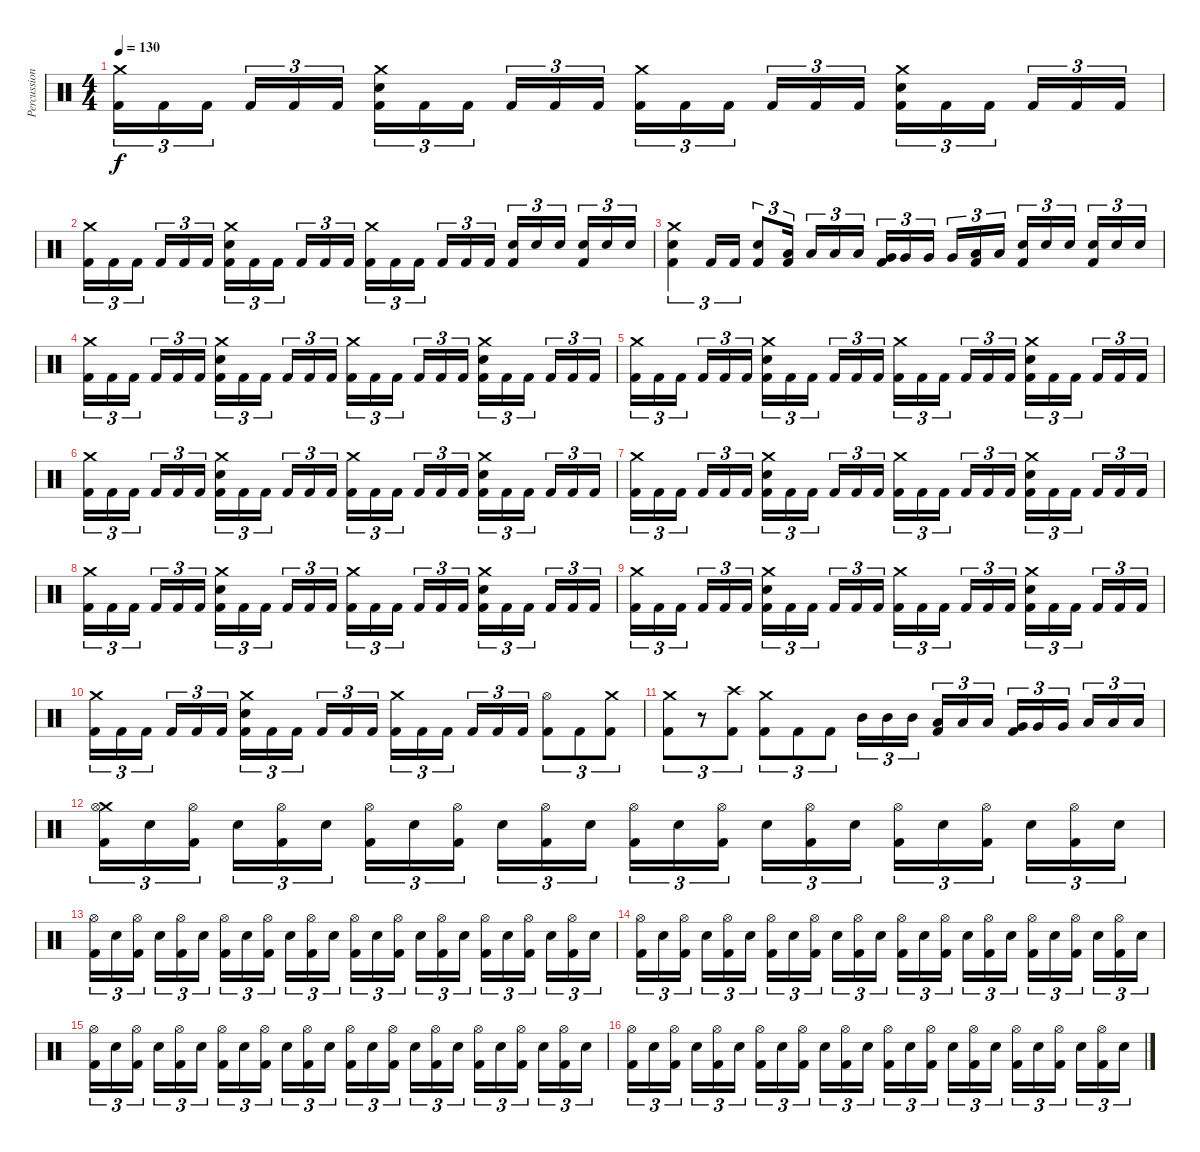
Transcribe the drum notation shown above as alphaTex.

\track ("Percussion" "Percussion") {instrument percussion}
\staff {score}
\articulation defaults
\ts (4 4)
\tempo 130
\clef neutral
\ks c
("Crash medium (hit)" "Kick (hit) 2").16{tu (3 2) dy f} "Kick (hit) 2".16{tu (3 2)} "Kick (hit) 2".16{tu (3 2)} "Kick (hit) 2".16{tu (3 2)} "Kick (hit) 2".16{tu (3 2)} "Kick (hit) 2".16{tu (3 2)} ("Crash medium (hit)" "Snare (hit) 2" "Kick (hit) 2").16{tu (3 2)} "Kick (hit) 2".16{tu (3 2)} "Kick (hit) 2".16{tu (3 2)} "Kick (hit) 2".16{tu (3 2)} "Kick (hit) 2".16{tu (3 2)} "Kick (hit) 2".16{tu (3 2)} ("Crash medium (hit)" "Kick (hit) 2").16{tu (3 2)} "Kick (hit) 2".16{tu (3 2)} "Kick (hit) 2".16{tu (3 2)} "Kick (hit) 2".16{tu (3 2)} "Kick (hit) 2".16{tu (3 2)} "Kick (hit) 2".16{tu (3 2)} ("Crash medium (hit)" "Snare (hit) 2" "Kick (hit) 2").16{tu (3 2)} "Kick (hit) 2".16{tu (3 2)} "Kick (hit) 2".16{tu (3 2)} "Kick (hit) 2".16{tu (3 2)} "Kick (hit) 2".16{tu (3 2)} "Kick (hit) 2".16{tu (3 2)} |
("Crash medium (hit)" "Kick (hit) 2").16{tu (3 2)} "Kick (hit) 2".16{tu (3 2)} "Kick (hit) 2".16{tu (3 2)} "Kick (hit) 2".16{tu (3 2)} "Kick (hit) 2".16{tu (3 2)} "Kick (hit) 2".16{tu (3 2)} ("Crash medium (hit)" "Snare (hit) 2" "Kick (hit) 2").16{tu (3 2)} "Kick (hit) 2".16{tu (3 2)} "Kick (hit) 2".16{tu (3 2)} "Kick (hit) 2".16{tu (3 2)} "Kick (hit) 2".16{tu (3 2)} "Kick (hit) 2".16{tu (3 2)} ("Crash medium (hit)" "Kick (hit) 2").16{tu (3 2)} "Kick (hit) 2".16{tu (3 2)} "Kick (hit) 2".16{tu (3 2)} "Kick (hit) 2".16{tu (3 2)} "Kick (hit) 2".16{tu (3 2)} "Kick (hit) 2".16{tu (3 2)} ("Snare (hit) 2" "Kick (hit) 2").16{tu (3 2)} "Snare (hit) 2".16{tu (3 2)} "Snare (hit) 2".16{tu (3 2)} ("Snare (hit) 2" "Kick (hit) 2").16{tu (3 2)} "Snare (hit) 2".16{tu (3 2)} "Snare (hit) 2".16{tu (3 2)} |
("Crash medium (hit)" "Snare (hit) 2" "Kick (hit) 2").4{tu (3 2)} "Kick (hit) 2".16{tu (3 2)} "Kick (hit) 2".16{tu (3 2)} ("Snare (hit) 2" "Kick (hit) 2").8{tu (3 2)} ("Low Tom (hit)" "Kick (hit) 2").16{tu (3 2)} "Low Tom (hit)".16{tu (3 2)} "Low Tom (hit)".16{tu (3 2)} "Low Tom (hit)".16{tu (3 2)} ("Very Low Tom (hit)" "Kick (hit) 2").16{tu (3 2)} "Very Low Tom (hit)".16{tu (3 2)} "Very Low Tom (hit)".16{tu (3 2)} "Very Low Tom (hit)".16{tu (3 2)} ("Low Floor Tom (hit)" "Kick (hit) 2").16{tu (3 2)} "Low Floor Tom (hit)".16{tu (3 2)} ("Snare (hit) 2" "Kick (hit) 2").16{tu (3 2)} "Snare (hit) 2".16{tu (3 2)} "Snare (hit) 2".16{tu (3 2)} ("Snare (hit) 2" "Kick (hit) 2").16{tu (3 2)} "Snare (hit) 2".16{tu (3 2)} "Snare (hit) 2".16{tu (3 2)} |
("Crash medium (hit)" "Kick (hit) 2").16{tu (3 2)} "Kick (hit) 2".16{tu (3 2)} "Kick (hit) 2".16{tu (3 2)} "Kick (hit) 2".16{tu (3 2)} "Kick (hit) 2".16{tu (3 2)} "Kick (hit) 2".16{tu (3 2)} ("Crash medium (hit)" "Snare (hit) 2" "Kick (hit) 2").16{tu (3 2)} "Kick (hit) 2".16{tu (3 2)} "Kick (hit) 2".16{tu (3 2)} "Kick (hit) 2".16{tu (3 2)} "Kick (hit) 2".16{tu (3 2)} "Kick (hit) 2".16{tu (3 2)} ("Crash medium (hit)" "Kick (hit) 2").16{tu (3 2)} "Kick (hit) 2".16{tu (3 2)} "Kick (hit) 2".16{tu (3 2)} "Kick (hit) 2".16{tu (3 2)} "Kick (hit) 2".16{tu (3 2)} "Kick (hit) 2".16{tu (3 2)} ("Crash medium (hit)" "Snare (hit) 2" "Kick (hit) 2").16{tu (3 2)} "Kick (hit) 2".16{tu (3 2)} "Kick (hit) 2".16{tu (3 2)} "Kick (hit) 2".16{tu (3 2)} "Kick (hit) 2".16{tu (3 2)} "Kick (hit) 2".16{tu (3 2)} |
("Crash medium (hit)" "Kick (hit) 2").16{tu (3 2)} "Kick (hit) 2".16{tu (3 2)} "Kick (hit) 2".16{tu (3 2)} "Kick (hit) 2".16{tu (3 2)} "Kick (hit) 2".16{tu (3 2)} "Kick (hit) 2".16{tu (3 2)} ("Crash medium (hit)" "Snare (hit) 2" "Kick (hit) 2").16{tu (3 2)} "Kick (hit) 2".16{tu (3 2)} "Kick (hit) 2".16{tu (3 2)} "Kick (hit) 2".16{tu (3 2)} "Kick (hit) 2".16{tu (3 2)} "Kick (hit) 2".16{tu (3 2)} ("Crash medium (hit)" "Kick (hit) 2").16{tu (3 2)} "Kick (hit) 2".16{tu (3 2)} "Kick (hit) 2".16{tu (3 2)} "Kick (hit) 2".16{tu (3 2)} "Kick (hit) 2".16{tu (3 2)} "Kick (hit) 2".16{tu (3 2)} ("Crash medium (hit)" "Snare (hit) 2" "Kick (hit) 2").16{tu (3 2)} "Kick (hit) 2".16{tu (3 2)} "Kick (hit) 2".16{tu (3 2)} "Kick (hit) 2".16{tu (3 2)} "Kick (hit) 2".16{tu (3 2)} "Kick (hit) 2".16{tu (3 2)} |
("Crash medium (hit)" "Kick (hit) 2").16{tu (3 2)} "Kick (hit) 2".16{tu (3 2)} "Kick (hit) 2".16{tu (3 2)} "Kick (hit) 2".16{tu (3 2)} "Kick (hit) 2".16{tu (3 2)} "Kick (hit) 2".16{tu (3 2)} ("Crash medium (hit)" "Snare (hit) 2" "Kick (hit) 2").16{tu (3 2)} "Kick (hit) 2".16{tu (3 2)} "Kick (hit) 2".16{tu (3 2)} "Kick (hit) 2".16{tu (3 2)} "Kick (hit) 2".16{tu (3 2)} "Kick (hit) 2".16{tu (3 2)} ("Crash medium (hit)" "Kick (hit) 2").16{tu (3 2)} "Kick (hit) 2".16{tu (3 2)} "Kick (hit) 2".16{tu (3 2)} "Kick (hit) 2".16{tu (3 2)} "Kick (hit) 2".16{tu (3 2)} "Kick (hit) 2".16{tu (3 2)} ("Crash medium (hit)" "Snare (hit) 2" "Kick (hit) 2").16{tu (3 2)} "Kick (hit) 2".16{tu (3 2)} "Kick (hit) 2".16{tu (3 2)} "Kick (hit) 2".16{tu (3 2)} "Kick (hit) 2".16{tu (3 2)} "Kick (hit) 2".16{tu (3 2)} |
("Crash medium (hit)" "Kick (hit) 2").16{tu (3 2)} "Kick (hit) 2".16{tu (3 2)} "Kick (hit) 2".16{tu (3 2)} "Kick (hit) 2".16{tu (3 2)} "Kick (hit) 2".16{tu (3 2)} "Kick (hit) 2".16{tu (3 2)} ("Crash medium (hit)" "Snare (hit) 2" "Kick (hit) 2").16{tu (3 2)} "Kick (hit) 2".16{tu (3 2)} "Kick (hit) 2".16{tu (3 2)} "Kick (hit) 2".16{tu (3 2)} "Kick (hit) 2".16{tu (3 2)} "Kick (hit) 2".16{tu (3 2)} ("Crash medium (hit)" "Kick (hit) 2").16{tu (3 2)} "Kick (hit) 2".16{tu (3 2)} "Kick (hit) 2".16{tu (3 2)} "Kick (hit) 2".16{tu (3 2)} "Kick (hit) 2".16{tu (3 2)} "Kick (hit) 2".16{tu (3 2)} ("Crash medium (hit)" "Snare (hit) 2" "Kick (hit) 2").16{tu (3 2)} "Kick (hit) 2".16{tu (3 2)} "Kick (hit) 2".16{tu (3 2)} "Kick (hit) 2".16{tu (3 2)} "Kick (hit) 2".16{tu (3 2)} "Kick (hit) 2".16{tu (3 2)} |
("Crash medium (hit)" "Kick (hit) 2").16{tu (3 2)} "Kick (hit) 2".16{tu (3 2)} "Kick (hit) 2".16{tu (3 2)} "Kick (hit) 2".16{tu (3 2)} "Kick (hit) 2".16{tu (3 2)} "Kick (hit) 2".16{tu (3 2)} ("Crash medium (hit)" "Snare (hit) 2" "Kick (hit) 2").16{tu (3 2)} "Kick (hit) 2".16{tu (3 2)} "Kick (hit) 2".16{tu (3 2)} "Kick (hit) 2".16{tu (3 2)} "Kick (hit) 2".16{tu (3 2)} "Kick (hit) 2".16{tu (3 2)} ("Crash medium (hit)" "Kick (hit) 2").16{tu (3 2)} "Kick (hit) 2".16{tu (3 2)} "Kick (hit) 2".16{tu (3 2)} "Kick (hit) 2".16{tu (3 2)} "Kick (hit) 2".16{tu (3 2)} "Kick (hit) 2".16{tu (3 2)} ("Crash medium (hit)" "Snare (hit) 2" "Kick (hit) 2").16{tu (3 2)} "Kick (hit) 2".16{tu (3 2)} "Kick (hit) 2".16{tu (3 2)} "Kick (hit) 2".16{tu (3 2)} "Kick (hit) 2".16{tu (3 2)} "Kick (hit) 2".16{tu (3 2)} |
("Crash medium (hit)" "Kick (hit) 2").16{tu (3 2)} "Kick (hit) 2".16{tu (3 2)} "Kick (hit) 2".16{tu (3 2)} "Kick (hit) 2".16{tu (3 2)} "Kick (hit) 2".16{tu (3 2)} "Kick (hit) 2".16{tu (3 2)} ("Crash medium (hit)" "Snare (hit) 2" "Kick (hit) 2").16{tu (3 2)} "Kick (hit) 2".16{tu (3 2)} "Kick (hit) 2".16{tu (3 2)} "Kick (hit) 2".16{tu (3 2)} "Kick (hit) 2".16{tu (3 2)} "Kick (hit) 2".16{tu (3 2)} ("Crash medium (hit)" "Kick (hit) 2").16{tu (3 2)} "Kick (hit) 2".16{tu (3 2)} "Kick (hit) 2".16{tu (3 2)} "Kick (hit) 2".16{tu (3 2)} "Kick (hit) 2".16{tu (3 2)} "Kick (hit) 2".16{tu (3 2)} ("Crash medium (hit)" "Snare (hit) 2" "Kick (hit) 2").16{tu (3 2)} "Kick (hit) 2".16{tu (3 2)} "Kick (hit) 2".16{tu (3 2)} "Kick (hit) 2".16{tu (3 2)} "Kick (hit) 2".16{tu (3 2)} "Kick (hit) 2".16{tu (3 2)} |
("Crash medium (hit)" "Kick (hit) 2").16{tu (3 2)} "Kick (hit) 2".16{tu (3 2)} "Kick (hit) 2".16{tu (3 2)} "Kick (hit) 2".16{tu (3 2)} "Kick (hit) 2".16{tu (3 2)} "Kick (hit) 2".16{tu (3 2)} ("Crash medium (hit)" "Snare (hit) 2" "Kick (hit) 2").16{tu (3 2)} "Kick (hit) 2".16{tu (3 2)} "Kick (hit) 2".16{tu (3 2)} "Kick (hit) 2".16{tu (3 2)} "Kick (hit) 2".16{tu (3 2)} "Kick (hit) 2".16{tu (3 2)} ("Crash medium (hit)" "Kick (hit) 2").16{tu (3 2)} "Kick (hit) 2".16{tu (3 2)} "Kick (hit) 2".16{tu (3 2)} "Kick (hit) 2".16{tu (3 2)} "Kick (hit) 2".16{tu (3 2)} "Kick (hit) 2".16{tu (3 2)} ("Hi-Hat (open)" "Kick (hit) 2").8{tu (3 2)} "Kick (hit) 2".8{tu (3 2)} ("Crash medium (hit)" "Kick (hit) 2").8{tu (3 2)} |
("Crash medium (hit)" "Kick (hit) 2").8{tu (3 2)} r.8{tu (3 2)} ("Crash high (hit)" "Kick (hit) 2").8{tu (3 2)} ("Crash medium (hit)" "Kick (hit) 2").8{tu (3 2)} "Kick (hit) 2".8{tu (3 2)} "Kick (hit) 2".8{tu (3 2)} "Mid Tom (hit)".16{tu (3 2)} "Mid Tom (hit)".16{tu (3 2)} "Mid Tom (hit)".16{tu (3 2)} ("Low Tom (hit)" "Kick (hit) 2").16{tu (3 2)} "Low Tom (hit)".16{tu (3 2)} "Low Tom (hit)".16{tu (3 2)} ("Very Low Tom (hit)" "Kick (hit) 2").16{tu (3 2)} "Very Low Tom (hit)".16{tu (3 2)} "Very Low Tom (hit)".16{tu (3 2)} "Low Floor Tom (hit)".16{tu (3 2)} "Low Floor Tom (hit)".16{tu (3 2)} "Low Floor Tom (hit)".16{tu (3 2)} |
("Crash medium (hit)" "Hi-Hat (open)" "Kick (hit) 2").16{tu (3 2)} "Snare (hit) 2".16{tu (3 2)} ("Hi-Hat (open)" "Kick (hit) 2").16{tu (3 2)} "Snare (hit) 2".16{tu (3 2)} ("Hi-Hat (open)" "Kick (hit) 2").16{tu (3 2)} "Snare (hit) 2".16{tu (3 2)} ("Hi-Hat (open)" "Kick (hit) 2").16{tu (3 2)} "Snare (hit) 2".16{tu (3 2)} ("Hi-Hat (open)" "Kick (hit) 2").16{tu (3 2)} "Snare (hit) 2".16{tu (3 2)} ("Hi-Hat (open)" "Kick (hit) 2").16{tu (3 2)} "Snare (hit) 2".16{tu (3 2)} ("Hi-Hat (open)" "Kick (hit) 2").16{tu (3 2)} "Snare (hit) 2".16{tu (3 2)} ("Hi-Hat (open)" "Kick (hit) 2").16{tu (3 2)} "Snare (hit) 2".16{tu (3 2)} ("Hi-Hat (open)" "Kick (hit) 2").16{tu (3 2)} "Snare (hit) 2".16{tu (3 2)} ("Hi-Hat (open)" "Kick (hit) 2").16{tu (3 2)} "Snare (hit) 2".16{tu (3 2)} ("Hi-Hat (open)" "Kick (hit) 2").16{tu (3 2)} "Snare (hit) 2".16{tu (3 2)} ("Hi-Hat (open)" "Kick (hit) 2").16{tu (3 2)} "Snare (hit) 2".16{tu (3 2)} |
("Hi-Hat (open)" "Kick (hit) 2").16{tu (3 2)} "Snare (hit) 2".16{tu (3 2)} ("Hi-Hat (open)" "Kick (hit) 2").16{tu (3 2)} "Snare (hit) 2".16{tu (3 2)} ("Hi-Hat (open)" "Kick (hit) 2").16{tu (3 2)} "Snare (hit) 2".16{tu (3 2)} ("Hi-Hat (open)" "Kick (hit) 2").16{tu (3 2)} "Snare (hit) 2".16{tu (3 2)} ("Hi-Hat (open)" "Kick (hit) 2").16{tu (3 2)} "Snare (hit) 2".16{tu (3 2)} ("Hi-Hat (open)" "Kick (hit) 2").16{tu (3 2)} "Snare (hit) 2".16{tu (3 2)} ("Hi-Hat (open)" "Kick (hit) 2").16{tu (3 2)} "Snare (hit) 2".16{tu (3 2)} ("Hi-Hat (open)" "Kick (hit) 2").16{tu (3 2)} "Snare (hit) 2".16{tu (3 2)} ("Hi-Hat (open)" "Kick (hit) 2").16{tu (3 2)} "Snare (hit) 2".16{tu (3 2)} ("Hi-Hat (open)" "Kick (hit) 2").16{tu (3 2)} "Snare (hit) 2".16{tu (3 2)} ("Hi-Hat (open)" "Kick (hit) 2").16{tu (3 2)} "Snare (hit) 2".16{tu (3 2)} ("Hi-Hat (open)" "Kick (hit) 2").16{tu (3 2)} "Snare (hit) 2".16{tu (3 2)} |
("Hi-Hat (open)" "Kick (hit) 2").16{tu (3 2)} "Snare (hit) 2".16{tu (3 2)} ("Hi-Hat (open)" "Kick (hit) 2").16{tu (3 2)} "Snare (hit) 2".16{tu (3 2)} ("Hi-Hat (open)" "Kick (hit) 2").16{tu (3 2)} "Snare (hit) 2".16{tu (3 2)} ("Hi-Hat (open)" "Kick (hit) 2").16{tu (3 2)} "Snare (hit) 2".16{tu (3 2)} ("Hi-Hat (open)" "Kick (hit) 2").16{tu (3 2)} "Snare (hit) 2".16{tu (3 2)} ("Hi-Hat (open)" "Kick (hit) 2").16{tu (3 2)} "Snare (hit) 2".16{tu (3 2)} ("Hi-Hat (open)" "Kick (hit) 2").16{tu (3 2)} "Snare (hit) 2".16{tu (3 2)} ("Hi-Hat (open)" "Kick (hit) 2").16{tu (3 2)} "Snare (hit) 2".16{tu (3 2)} ("Hi-Hat (open)" "Kick (hit) 2").16{tu (3 2)} "Snare (hit) 2".16{tu (3 2)} ("Hi-Hat (open)" "Kick (hit) 2").16{tu (3 2)} "Snare (hit) 2".16{tu (3 2)} ("Hi-Hat (open)" "Kick (hit) 2").16{tu (3 2)} "Snare (hit) 2".16{tu (3 2)} ("Hi-Hat (open)" "Kick (hit) 2").16{tu (3 2)} "Snare (hit) 2".16{tu (3 2)} |
("Hi-Hat (open)" "Kick (hit) 2").16{tu (3 2)} "Snare (hit) 2".16{tu (3 2)} ("Hi-Hat (open)" "Kick (hit) 2").16{tu (3 2)} "Snare (hit) 2".16{tu (3 2)} ("Hi-Hat (open)" "Kick (hit) 2").16{tu (3 2)} "Snare (hit) 2".16{tu (3 2)} ("Hi-Hat (open)" "Kick (hit) 2").16{tu (3 2)} "Snare (hit) 2".16{tu (3 2)} ("Hi-Hat (open)" "Kick (hit) 2").16{tu (3 2)} "Snare (hit) 2".16{tu (3 2)} ("Hi-Hat (open)" "Kick (hit) 2").16{tu (3 2)} "Snare (hit) 2".16{tu (3 2)} ("Hi-Hat (open)" "Kick (hit) 2").16{tu (3 2)} "Snare (hit) 2".16{tu (3 2)} ("Hi-Hat (open)" "Kick (hit) 2").16{tu (3 2)} "Snare (hit) 2".16{tu (3 2)} ("Hi-Hat (open)" "Kick (hit) 2").16{tu (3 2)} "Snare (hit) 2".16{tu (3 2)} ("Hi-Hat (open)" "Kick (hit) 2").16{tu (3 2)} "Snare (hit) 2".16{tu (3 2)} ("Hi-Hat (open)" "Kick (hit) 2").16{tu (3 2)} "Snare (hit) 2".16{tu (3 2)} ("Hi-Hat (open)" "Kick (hit) 2").16{tu (3 2)} "Snare (hit) 2".16{tu (3 2)} |
("Hi-Hat (open)" "Kick (hit) 2").16{tu (3 2)} "Snare (hit) 2".16{tu (3 2)} ("Hi-Hat (open)" "Kick (hit) 2").16{tu (3 2)} "Snare (hit) 2".16{tu (3 2)} ("Hi-Hat (open)" "Kick (hit) 2").16{tu (3 2)} "Snare (hit) 2".16{tu (3 2)} ("Hi-Hat (open)" "Kick (hit) 2").16{tu (3 2)} "Snare (hit) 2".16{tu (3 2)} ("Hi-Hat (open)" "Kick (hit) 2").16{tu (3 2)} "Snare (hit) 2".16{tu (3 2)} ("Hi-Hat (open)" "Kick (hit) 2").16{tu (3 2)} "Snare (hit) 2".16{tu (3 2)} ("Hi-Hat (open)" "Kick (hit) 2").16{tu (3 2)} "Snare (hit) 2".16{tu (3 2)} ("Hi-Hat (open)" "Kick (hit) 2").16{tu (3 2)} "Snare (hit) 2".16{tu (3 2)} ("Hi-Hat (open)" "Kick (hit) 2").16{tu (3 2)} "Snare (hit) 2".16{tu (3 2)} ("Hi-Hat (open)" "Kick (hit) 2").16{tu (3 2)} "Snare (hit) 2".16{tu (3 2)} ("Hi-Hat (open)" "Kick (hit) 2").16{tu (3 2)} "Snare (hit) 2".16{tu (3 2)} ("Hi-Hat (open)" "Kick (hit) 2").16{tu (3 2)} "Snare (hit) 2".16{tu (3 2)}
